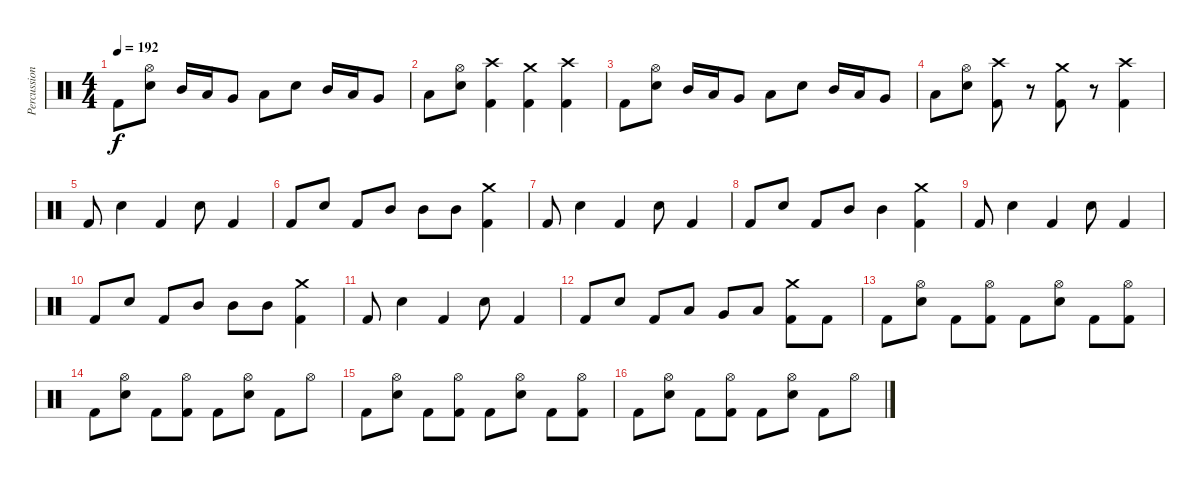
\track ("Percussion" "Percussion") {instrument percussion}
\staff {score}
\articulation defaults
\ts (4 4)
\tempo 192
\clef neutral
\ks c "Kick (hit) 2".8{dy f}
("Hi-Hat (open)" "Electric Snare (hit)").8 "Mid Tom (hit)".16 "Low Tom (hit)".16 "Very Low Tom (hit)".8 "Low Floor Tom (hit)".8 "Electric Snare (hit)".8 "Mid Tom (hit)".16 "Low Tom (hit)".16 "Very Low Tom (hit)".8 |
"Low Floor Tom (hit)".8 ("Hi-Hat (open)" "Electric Snare (hit)").8 ("Crash high (hit)" "Kick (hit) 2").4 ("Crash medium (hit)" "Kick (hit) 2").4 ("Crash high (hit)" "Kick (hit) 2").4 |
"Kick (hit) 2".8 ("Hi-Hat (open)" "Electric Snare (hit)").8 "Mid Tom (hit)".16 "Low Tom (hit)".16 "Very Low Tom (hit)".8 "Low Floor Tom (hit)".8 "Electric Snare (hit)".8 "Mid Tom (hit)".16 "Low Tom (hit)".16 "Very Low Tom (hit)".8 |
"Low Floor Tom (hit)".8 ("Hi-Hat (open)" "Electric Snare (hit)").8 ("Crash high (hit)" "Kick (hit) 2").8 r.8{volume 0} ("Crash medium (hit)" "Kick (hit) 2").8{volume 13} r.8{volume 0} ("Crash high (hit)" "Kick (hit) 2").4{volume 13} |
"Kick (hit) 2".8 "Electric Snare (hit)".4 "Kick (hit) 2".4 "Electric Snare (hit)".8 "Kick (hit) 2".4 |
"Kick (hit) 2".8 "Electric Snare (hit)".8 "Kick (hit) 2".8 "Mid Tom (hit)".8 "Mid Tom (hit)".8 "Mid Tom (hit)".8 ("Crash medium (hit)" "Kick (hit) 2").4 |
"Kick (hit) 2".8 "Electric Snare (hit)".4 "Kick (hit) 2".4 "Electric Snare (hit)".8 "Kick (hit) 2".4 |
"Kick (hit) 2".8 "Electric Snare (hit)".8 "Kick (hit) 2".8 "Mid Tom (hit)".8 "Mid Tom (hit)".4 ("Crash medium (hit)" "Kick (hit) 2").4 |
"Kick (hit) 2".8 "Electric Snare (hit)".4 "Kick (hit) 2".4 "Electric Snare (hit)".8 "Kick (hit) 2".4 |
"Kick (hit) 2".8 "Electric Snare (hit)".8 "Kick (hit) 2".8 "Mid Tom (hit)".8 "Mid Tom (hit)".8 "Mid Tom (hit)".8 ("Crash medium (hit)" "Kick (hit) 2").4 |
"Kick (hit) 2".8 "Electric Snare (hit)".4 "Kick (hit) 2".4 "Electric Snare (hit)".8 "Kick (hit) 2".4 |
"Kick (hit) 2".8 "Electric Snare (hit)".8 "Kick (hit) 2".8 "Low Tom (hit)".8 "Very Low Tom (hit)".8 "Low Floor Tom (hit)".8 ("Crash medium (hit)" "Kick (hit) 2").8 "Kick (hit) 2".8 |
"Kick (hit) 2".8 ("Hi-Hat (open)" "Electric Snare (hit)").8 "Kick (hit) 2".8 ("Hi-Hat (open)" "Kick (hit) 2").8 "Kick (hit) 2".8 ("Hi-Hat (open)" "Electric Snare (hit)").8 "Kick (hit) 2".8 ("Hi-Hat (open)" "Kick (hit) 2").8 |
"Kick (hit) 2".8 ("Hi-Hat (open)" "Electric Snare (hit)").8 "Kick (hit) 2".8 ("Hi-Hat (open)" "Kick (hit) 2").8 "Kick (hit) 2".8 ("Hi-Hat (open)" "Electric Snare (hit)").8 "Kick (hit) 2".8 "Hi-Hat (open)".8 |
"Kick (hit) 2".8 ("Hi-Hat (open)" "Electric Snare (hit)").8 "Kick (hit) 2".8 ("Hi-Hat (open)" "Kick (hit) 2").8 "Kick (hit) 2".8 ("Hi-Hat (open)" "Electric Snare (hit)").8 "Kick (hit) 2".8 ("Hi-Hat (open)" "Kick (hit) 2").8 |
"Kick (hit) 2".8 ("Hi-Hat (open)" "Electric Snare (hit)").8 "Kick (hit) 2".8 ("Hi-Hat (open)" "Kick (hit) 2").8 "Kick (hit) 2".8 ("Hi-Hat (open)" "Electric Snare (hit)").8 "Kick (hit) 2".8 "Hi-Hat (open)".8
